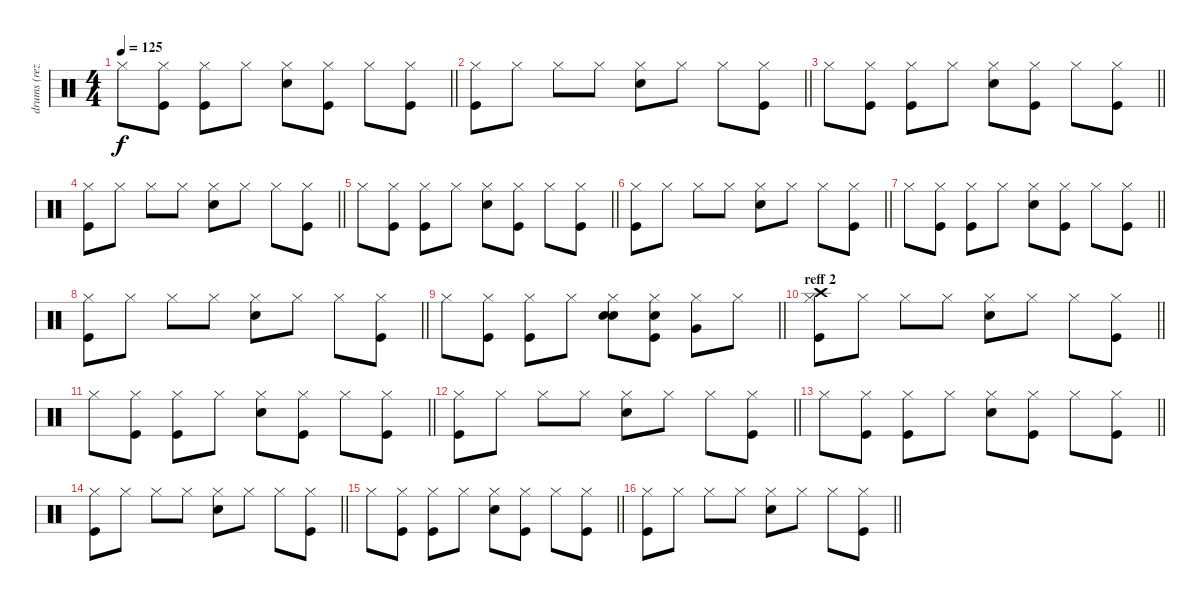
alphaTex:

\track ("drums (reza)" "drums (rez") {instrument percussion}
\staff {score}
\articulation defaults
\ts (4 4)
\tempo 125
\clef neutral
\barLineRight lightlight
\ks c "Hi-Hat (closed)".8{dy f}
("Hi-Hat (closed)" "Kick (hit)").8 ("Hi-Hat (closed)" "Kick (hit)").8 "Hi-Hat (closed)".8 ("Hi-Hat (closed)" "Snare (hit) 2").8 ("Hi-Hat (closed)" "Kick (hit)").8 "Hi-Hat (closed)".8 ("Hi-Hat (closed)" "Kick (hit)").8 |
\barLineRight lightlight
("Hi-Hat (closed)" "Kick (hit)").8 "Hi-Hat (closed)".8 "Hi-Hat (closed)".8 "Hi-Hat (closed)".8 ("Hi-Hat (closed)" "Snare (hit) 2").8 "Hi-Hat (closed)".8 "Hi-Hat (closed)".8 ("Hi-Hat (closed)" "Kick (hit)").8 |
\barLineRight lightlight "Hi-Hat (closed)".8
("Hi-Hat (closed)" "Kick (hit)").8 ("Hi-Hat (closed)" "Kick (hit)").8 "Hi-Hat (closed)".8 ("Hi-Hat (closed)" "Snare (hit) 2").8 ("Hi-Hat (closed)" "Kick (hit)").8 "Hi-Hat (closed)".8 ("Hi-Hat (closed)" "Kick (hit)").8 |
\barLineRight lightlight
("Hi-Hat (closed)" "Kick (hit)").8 "Hi-Hat (closed)".8 "Hi-Hat (closed)".8 "Hi-Hat (closed)".8 ("Hi-Hat (closed)" "Snare (hit) 2").8 "Hi-Hat (closed)".8 "Hi-Hat (closed)".8 ("Hi-Hat (closed)" "Kick (hit)").8 |
\barLineRight lightlight "Hi-Hat (closed)".8
("Hi-Hat (closed)" "Kick (hit)").8 ("Hi-Hat (closed)" "Kick (hit)").8 "Hi-Hat (closed)".8 ("Hi-Hat (closed)" "Snare (hit) 2").8 ("Hi-Hat (closed)" "Kick (hit)").8 "Hi-Hat (closed)".8 ("Hi-Hat (closed)" "Kick (hit)").8 |
\barLineRight lightlight
("Hi-Hat (closed)" "Kick (hit)").8 "Hi-Hat (closed)".8 "Hi-Hat (closed)".8 "Hi-Hat (closed)".8 ("Hi-Hat (closed)" "Snare (hit) 2").8 "Hi-Hat (closed)".8 "Hi-Hat (closed)".8 ("Hi-Hat (closed)" "Kick (hit)").8 |
\barLineRight lightlight "Hi-Hat (closed)".8
("Hi-Hat (closed)" "Kick (hit)").8 ("Hi-Hat (closed)" "Kick (hit)").8 "Hi-Hat (closed)".8 ("Hi-Hat (closed)" "Snare (hit) 2").8 ("Hi-Hat (closed)" "Kick (hit)").8 "Hi-Hat (closed)".8 ("Hi-Hat (closed)" "Kick (hit)").8 |
\barLineRight lightlight
("Hi-Hat (closed)" "Kick (hit)").8 "Hi-Hat (closed)".8 "Hi-Hat (closed)".8 "Hi-Hat (closed)".8 ("Hi-Hat (closed)" "Snare (hit) 2").8 "Hi-Hat (closed)".8 "Hi-Hat (closed)".8 ("Hi-Hat (closed)" "Kick (hit)").8 |
\barLineRight lightlight "Hi-Hat (closed)".8
("Hi-Hat (closed)" "Kick (hit)").8 ("Hi-Hat (closed)" "Kick (hit)").8 "Hi-Hat (closed)".8 ("Hi-Hat (closed)" "Snare (hit) 2" "Snare (hit) 2").8 ("Hi-Hat (closed)" "Kick (hit)" "Snare (hit) 2").8 ("Hi-Hat (closed)" "Very Low Tom (hit)").8 "Hi-Hat (closed)".8 |
\section ("" "reff 2")
\barLineRight lightlight
("Hi-Hat (closed)" "Kick (hit)" "Crash high (hit)").8 "Hi-Hat (closed)".8 "Hi-Hat (closed)".8 "Hi-Hat (closed)".8 ("Hi-Hat (closed)" "Snare (hit) 2").8 "Hi-Hat (closed)".8 "Hi-Hat (closed)".8 ("Hi-Hat (closed)" "Kick (hit)").8 |
\barLineRight lightlight "Hi-Hat (closed)".8
("Hi-Hat (closed)" "Kick (hit)").8 ("Hi-Hat (closed)" "Kick (hit)").8 "Hi-Hat (closed)".8 ("Hi-Hat (closed)" "Snare (hit) 2").8 ("Hi-Hat (closed)" "Kick (hit)").8 "Hi-Hat (closed)".8 ("Hi-Hat (closed)" "Kick (hit)").8 |
\barLineRight lightlight
("Hi-Hat (closed)" "Kick (hit)").8 "Hi-Hat (closed)".8 "Hi-Hat (closed)".8 "Hi-Hat (closed)".8 ("Hi-Hat (closed)" "Snare (hit) 2").8 "Hi-Hat (closed)".8 "Hi-Hat (closed)".8 ("Hi-Hat (closed)" "Kick (hit)").8 |
\barLineRight lightlight "Hi-Hat (closed)".8
("Hi-Hat (closed)" "Kick (hit)").8 ("Hi-Hat (closed)" "Kick (hit)").8 "Hi-Hat (closed)".8 ("Hi-Hat (closed)" "Snare (hit) 2").8 ("Hi-Hat (closed)" "Kick (hit)").8 "Hi-Hat (closed)".8 ("Hi-Hat (closed)" "Kick (hit)").8 |
\barLineRight lightlight
("Hi-Hat (closed)" "Kick (hit)").8 "Hi-Hat (closed)".8 "Hi-Hat (closed)".8 "Hi-Hat (closed)".8 ("Hi-Hat (closed)" "Snare (hit) 2").8 "Hi-Hat (closed)".8 "Hi-Hat (closed)".8 ("Hi-Hat (closed)" "Kick (hit)").8 |
\barLineRight lightlight "Hi-Hat (closed)".8
("Hi-Hat (closed)" "Kick (hit)").8 ("Hi-Hat (closed)" "Kick (hit)").8 "Hi-Hat (closed)".8 ("Hi-Hat (closed)" "Snare (hit) 2").8 ("Hi-Hat (closed)" "Kick (hit)").8 "Hi-Hat (closed)".8 ("Hi-Hat (closed)" "Kick (hit)").8 |
\barLineRight lightlight
("Hi-Hat (closed)" "Kick (hit)").8 "Hi-Hat (closed)".8 "Hi-Hat (closed)".8 "Hi-Hat (closed)".8 ("Hi-Hat (closed)" "Snare (hit) 2").8 "Hi-Hat (closed)".8 "Hi-Hat (closed)".8 ("Hi-Hat (closed)" "Kick (hit)").8
